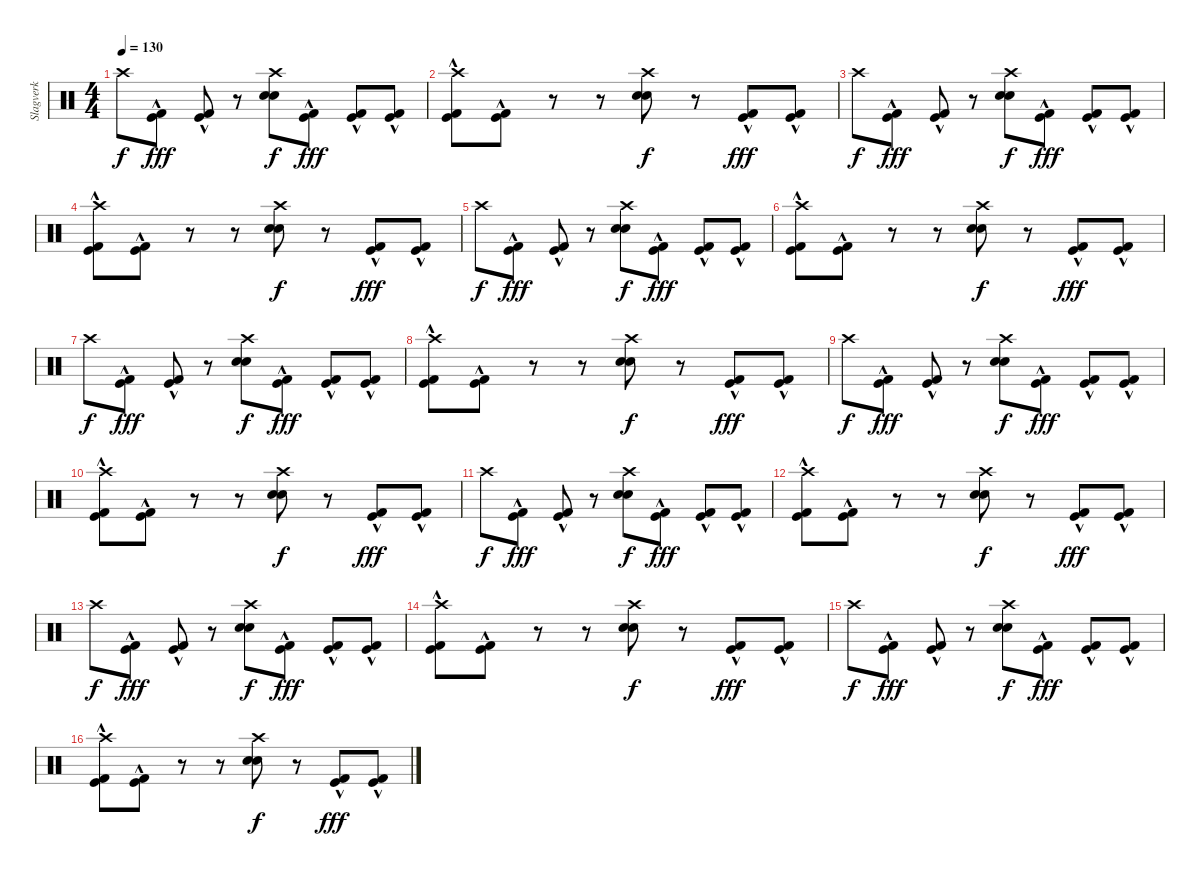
\track ("Slagverk" "Slagverk") {instrument percussion}
\staff {score}
\articulation defaults
\ts (4 4)
\tempo 130
\clef neutral
\ks c "Crash high (hit)".8{dy f}
("Kick (hit)"{hac} "Kick (hit) 2"{hac}).8{dy fff} ("Kick (hit)"{hac} "Kick (hit) 2"{hac}).8 r.8 ("Crash high (hit)" "Electric Snare (hit)" "Snare (hit) 2").8{dy f} ("Kick (hit)"{hac} "Kick (hit) 2"{hac}).8{dy fff} ("Kick (hit)"{hac} "Kick (hit) 2"{hac}).8 ("Kick (hit)"{hac} "Kick (hit) 2"{hac}).8 |
("Crash high (hit)" "Kick (hit)"{hac} "Kick (hit) 2"{hac}).8{volume 14} ("Kick (hit)"{hac} "Kick (hit) 2"{hac}).8 r.8 r.8 ("Crash high (hit)" "Electric Snare (hit)" "Snare (hit) 2").8{dy f} r.8 ("Kick (hit)"{hac} "Kick (hit) 2"{hac}).8{dy fff} ("Kick (hit)"{hac} "Kick (hit) 2"{hac}).8 |
"Crash high (hit)".8{dy f} ("Kick (hit)"{hac} "Kick (hit) 2"{hac}).8{dy fff} ("Kick (hit)"{hac} "Kick (hit) 2"{hac}).8 r.8 ("Crash high (hit)" "Electric Snare (hit)" "Snare (hit) 2").8{dy f} ("Kick (hit)"{hac} "Kick (hit) 2"{hac}).8{dy fff} ("Kick (hit)"{hac} "Kick (hit) 2"{hac}).8 ("Kick (hit)"{hac} "Kick (hit) 2"{hac}).8 |
("Crash high (hit)" "Kick (hit)"{hac} "Kick (hit) 2"{hac}).8{volume 12} ("Kick (hit)"{hac} "Kick (hit) 2"{hac}).8 r.8 r.8 ("Crash high (hit)" "Electric Snare (hit)" "Snare (hit) 2").8{dy f} r.8 ("Kick (hit)"{hac} "Kick (hit) 2"{hac}).8{dy fff} ("Kick (hit)"{hac} "Kick (hit) 2"{hac}).8 |
"Crash high (hit)".8{dy f} ("Kick (hit)"{hac} "Kick (hit) 2"{hac}).8{dy fff} ("Kick (hit)"{hac} "Kick (hit) 2"{hac}).8 r.8 ("Crash high (hit)" "Electric Snare (hit)" "Snare (hit) 2").8{dy f} ("Kick (hit)"{hac} "Kick (hit) 2"{hac}).8{dy fff} ("Kick (hit)"{hac} "Kick (hit) 2"{hac}).8 ("Kick (hit)"{hac} "Kick (hit) 2"{hac}).8 |
("Crash high (hit)" "Kick (hit)"{hac} "Kick (hit) 2"{hac}).8{volume 10} ("Kick (hit)"{hac} "Kick (hit) 2"{hac}).8 r.8 r.8 ("Crash high (hit)" "Electric Snare (hit)" "Snare (hit) 2").8{dy f} r.8 ("Kick (hit)"{hac} "Kick (hit) 2"{hac}).8{dy fff} ("Kick (hit)"{hac} "Kick (hit) 2"{hac}).8 |
"Crash high (hit)".8{dy f} ("Kick (hit)"{hac} "Kick (hit) 2"{hac}).8{dy fff} ("Kick (hit)"{hac} "Kick (hit) 2"{hac}).8 r.8 ("Crash high (hit)" "Electric Snare (hit)" "Snare (hit) 2").8{dy f} ("Kick (hit)"{hac} "Kick (hit) 2"{hac}).8{dy fff} ("Kick (hit)"{hac} "Kick (hit) 2"{hac}).8 ("Kick (hit)"{hac} "Kick (hit) 2"{hac}).8 |
("Crash high (hit)" "Kick (hit)"{hac} "Kick (hit) 2"{hac}).8{volume 8} ("Kick (hit)"{hac} "Kick (hit) 2"{hac}).8 r.8 r.8 ("Crash high (hit)" "Electric Snare (hit)" "Snare (hit) 2").8{dy f} r.8 ("Kick (hit)"{hac} "Kick (hit) 2"{hac}).8{dy fff} ("Kick (hit)"{hac} "Kick (hit) 2"{hac}).8 |
"Crash high (hit)".8{dy f} ("Kick (hit)"{hac} "Kick (hit) 2"{hac}).8{dy fff} ("Kick (hit)"{hac} "Kick (hit) 2"{hac}).8 r.8 ("Crash high (hit)" "Electric Snare (hit)" "Snare (hit) 2").8{dy f} ("Kick (hit)"{hac} "Kick (hit) 2"{hac}).8{dy fff} ("Kick (hit)"{hac} "Kick (hit) 2"{hac}).8 ("Kick (hit)"{hac} "Kick (hit) 2"{hac}).8 |
("Crash high (hit)" "Kick (hit)"{hac} "Kick (hit) 2"{hac}).8{volume 6} ("Kick (hit)"{hac} "Kick (hit) 2"{hac}).8 r.8 r.8 ("Crash high (hit)" "Electric Snare (hit)" "Snare (hit) 2").8{dy f} r.8 ("Kick (hit)"{hac} "Kick (hit) 2"{hac}).8{dy fff} ("Kick (hit)"{hac} "Kick (hit) 2"{hac}).8 |
"Crash high (hit)".8{dy f} ("Kick (hit)"{hac} "Kick (hit) 2"{hac}).8{dy fff} ("Kick (hit)"{hac} "Kick (hit) 2"{hac}).8 r.8 ("Crash high (hit)" "Electric Snare (hit)" "Snare (hit) 2").8{dy f} ("Kick (hit)"{hac} "Kick (hit) 2"{hac}).8{dy fff} ("Kick (hit)"{hac} "Kick (hit) 2"{hac}).8 ("Kick (hit)"{hac} "Kick (hit) 2"{hac}).8 |
("Crash high (hit)" "Kick (hit)"{hac} "Kick (hit) 2"{hac}).8{volume 5} ("Kick (hit)"{hac} "Kick (hit) 2"{hac}).8 r.8 r.8 ("Crash high (hit)" "Electric Snare (hit)" "Snare (hit) 2").8{dy f} r.8 ("Kick (hit)"{hac} "Kick (hit) 2"{hac}).8{dy fff} ("Kick (hit)"{hac} "Kick (hit) 2"{hac}).8 |
"Crash high (hit)".8{dy f} ("Kick (hit)"{hac} "Kick (hit) 2"{hac}).8{dy fff} ("Kick (hit)"{hac} "Kick (hit) 2"{hac}).8 r.8 ("Crash high (hit)" "Electric Snare (hit)" "Snare (hit) 2").8{dy f} ("Kick (hit)"{hac} "Kick (hit) 2"{hac}).8{dy fff} ("Kick (hit)"{hac} "Kick (hit) 2"{hac}).8 ("Kick (hit)"{hac} "Kick (hit) 2"{hac}).8 |
("Crash high (hit)" "Kick (hit)"{hac} "Kick (hit) 2"{hac}).8{volume 4} ("Kick (hit)"{hac} "Kick (hit) 2"{hac}).8 r.8 r.8 ("Crash high (hit)" "Electric Snare (hit)" "Snare (hit) 2").8{dy f} r.8 ("Kick (hit)"{hac} "Kick (hit) 2"{hac}).8{dy fff} ("Kick (hit)"{hac} "Kick (hit) 2"{hac}).8 |
"Crash high (hit)".8{dy f} ("Kick (hit)"{hac} "Kick (hit) 2"{hac}).8{dy fff} ("Kick (hit)"{hac} "Kick (hit) 2"{hac}).8 r.8 ("Crash high (hit)" "Electric Snare (hit)" "Snare (hit) 2").8{dy f} ("Kick (hit)"{hac} "Kick (hit) 2"{hac}).8{dy fff} ("Kick (hit)"{hac} "Kick (hit) 2"{hac}).8 ("Kick (hit)"{hac} "Kick (hit) 2"{hac}).8 |
("Crash high (hit)" "Kick (hit)"{hac} "Kick (hit) 2"{hac}).8{volume 2} ("Kick (hit)"{hac} "Kick (hit) 2"{hac}).8 r.8 r.8 ("Crash high (hit)" "Electric Snare (hit)" "Snare (hit) 2").8{dy f} r.8 ("Kick (hit)"{hac} "Kick (hit) 2"{hac}).8{dy fff} ("Kick (hit)"{hac} "Kick (hit) 2"{hac}).8
